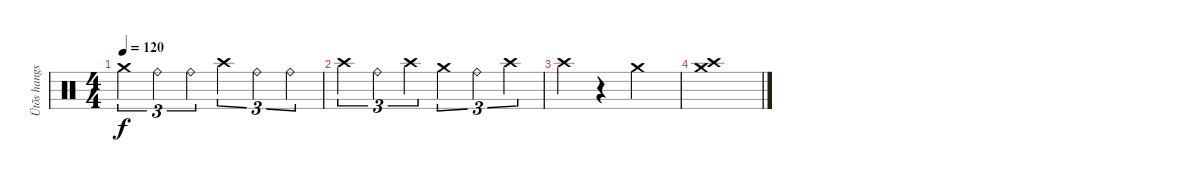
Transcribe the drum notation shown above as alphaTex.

\track ("Ütõs hangszer" "Ütõs hangs") {instrument percussion}
\staff {score}
\articulation defaults
\ts (4 4)
\tempo 120
\clef neutral
\ks c "Crash medium (hit)".4{tu (3 2) dy f} "Ride (bell)".4{tu (3 2)} "Ride (bell)".4{tu (3 2)} "Crash high (hit)".4{tu (3 2)} "Ride (bell)".4{tu (3 2)} "Ride (bell)".4{tu (3 2)}
|
"Crash high (hit)".4{tu (3 2)} "Ride (bell)".4{tu (3 2)} "Crash high (hit)".4{tu (3 2)} "Crash medium (hit)".4{tu (3 2)} "Ride (bell)".4{tu (3 2)} "Crash high (hit)".4{tu (3 2)} |
"Crash high (hit)".4 r.4 "Crash medium (hit)".2 |
("Crash medium (hit)" "Crash high (hit)").1
